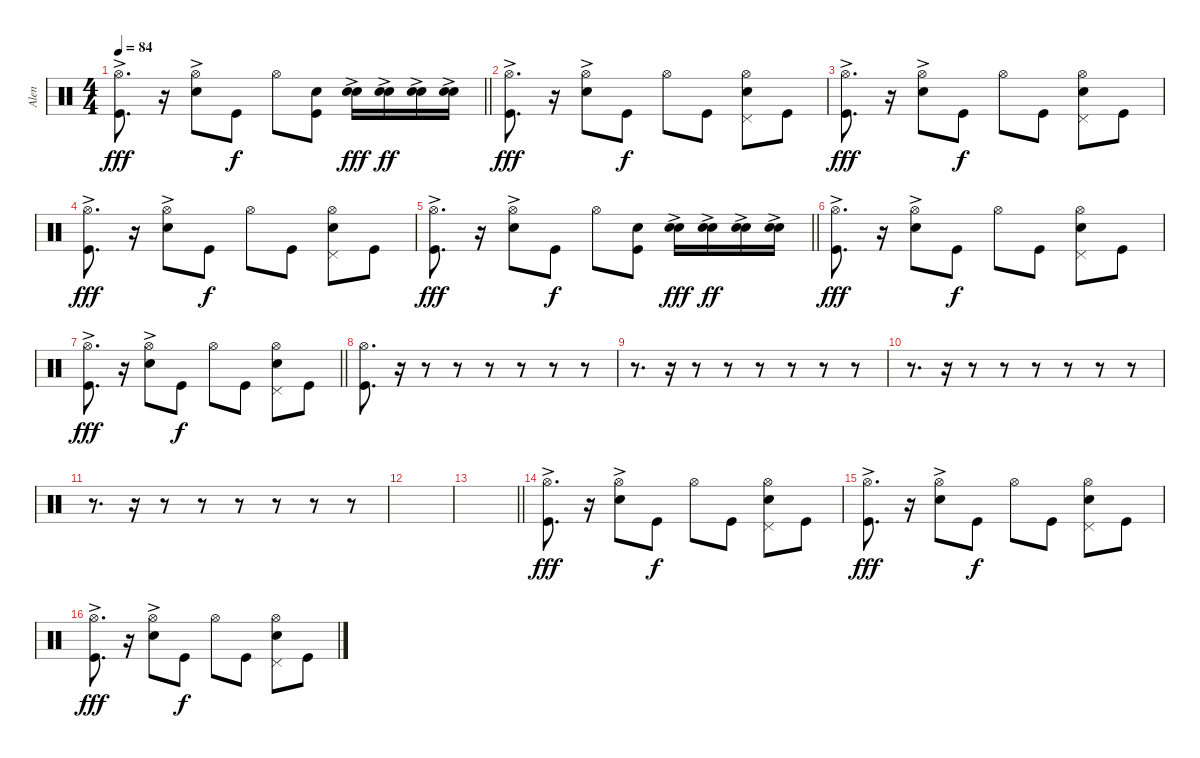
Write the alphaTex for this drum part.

\track ("Alen" "Alen") {instrument percussion}
\staff {score}
\articulation defaults
\ts (4 4)
\tempo 84
\clef neutral
\barLineRight lightlight
\ks c
("Hi-Hat (open)"{ac} "Kick (hit)").8{d dy fff} r.16 ("Hi-Hat (open)" "Snare (hit) 2"{ac}).8 "Kick (hit)".8{dy f} "Hi-Hat (open)".8 ("Electric Snare (hit)" "Kick (hit)").8 ("Snare (hit) 2"{ac} "Electric Snare (hit)"{ac}).16{dy fff} ("Snare (hit) 2"{ac} "Electric Snare (hit)").16{dy ff} ("Snare (hit) 2"{ac} "Electric Snare (hit)").16 ("Snare (hit) 2"{ac} "Electric Snare (hit)").16 |
("Hi-Hat (open)"{ac} "Kick (hit)").8{d dy fff} r.16 ("Hi-Hat (open)" "Snare (hit) 2"{ac}).8 "Kick (hit)".8{dy f} "Hi-Hat (open)".8 "Kick (hit)".8 ("Pedal Hi-Hat (hit)" "Snare (hit) 2" "Hi-Hat (open)").8 "Kick (hit)".8 |
("Hi-Hat (open)"{ac} "Kick (hit)").8{d dy fff} r.16 ("Hi-Hat (open)" "Snare (hit) 2"{ac}).8 "Kick (hit)".8{dy f} "Hi-Hat (open)".8 "Kick (hit)".8 ("Pedal Hi-Hat (hit)" "Snare (hit) 2" "Hi-Hat (open)").8 "Kick (hit)".8 |
("Hi-Hat (open)"{ac} "Kick (hit)").8{d dy fff} r.16 ("Hi-Hat (open)" "Snare (hit) 2"{ac}).8 "Kick (hit)".8{dy f} "Hi-Hat (open)".8 "Kick (hit)".8 ("Pedal Hi-Hat (hit)" "Snare (hit) 2" "Hi-Hat (open)").8 "Kick (hit)".8 |
\barLineRight lightlight
("Hi-Hat (open)"{ac} "Kick (hit)").8{d dy fff} r.16 ("Hi-Hat (open)" "Snare (hit) 2"{ac}).8 "Kick (hit)".8{dy f} "Hi-Hat (open)".8 ("Electric Snare (hit)" "Kick (hit)").8 ("Snare (hit) 2"{ac} "Electric Snare (hit)"{ac}).16{dy fff} ("Snare (hit) 2"{ac} "Electric Snare (hit)").16{dy ff} ("Snare (hit) 2"{ac} "Electric Snare (hit)").16 ("Snare (hit) 2"{ac} "Electric Snare (hit)").16 |
("Hi-Hat (open)"{ac} "Kick (hit)").8{d dy fff} r.16 ("Hi-Hat (open)" "Snare (hit) 2"{ac}).8 "Kick (hit)".8{dy f} "Hi-Hat (open)".8 "Kick (hit)".8 ("Pedal Hi-Hat (hit)" "Snare (hit) 2" "Hi-Hat (open)").8 "Kick (hit)".8 |
\barLineRight lightlight
("Hi-Hat (open)"{ac} "Kick (hit)").8{d dy fff} r.16 ("Hi-Hat (open)" "Snare (hit) 2"{ac}).8 "Kick (hit)".8{dy f} "Hi-Hat (open)".8 "Kick (hit)".8 ("Pedal Hi-Hat (hit)" "Snare (hit) 2" "Hi-Hat (open)").8 "Kick (hit)".8 |
("Kick (hit)" "Hi-Hat (open)").8{d} r.16 r.8 r.8 r.8 r.8 r.8 r.8 |
r.8{d} r.16 r.8 r.8 r.8 r.8 r.8 r.8 |
r.8{d} r.16 r.8 r.8 r.8 r.8 r.8 r.8 |
r.8{d} r.16 r.8 r.8 r.8 r.8 r.8 r.8 |
|
\barLineRight lightlight
|
("Hi-Hat (open)"{ac} "Kick (hit)").8{d dy fff} r.16 ("Hi-Hat (open)" "Snare (hit) 2"{ac}).8 "Kick (hit)".8{dy f} "Hi-Hat (open)".8 "Kick (hit)".8 ("Pedal Hi-Hat (hit)" "Snare (hit) 2" "Hi-Hat (open)").8 "Kick (hit)".8 |
("Hi-Hat (open)"{ac} "Kick (hit)").8{d dy fff} r.16 ("Hi-Hat (open)" "Snare (hit) 2"{ac}).8 "Kick (hit)".8{dy f} "Hi-Hat (open)".8 "Kick (hit)".8 ("Pedal Hi-Hat (hit)" "Snare (hit) 2" "Hi-Hat (open)").8 "Kick (hit)".8 |
("Hi-Hat (open)"{ac} "Kick (hit)").8{d dy fff} r.16 ("Hi-Hat (open)" "Snare (hit) 2"{ac}).8 "Kick (hit)".8{dy f} "Hi-Hat (open)".8 "Kick (hit)".8 ("Pedal Hi-Hat (hit)" "Snare (hit) 2" "Hi-Hat (open)").8 "Kick (hit)".8
